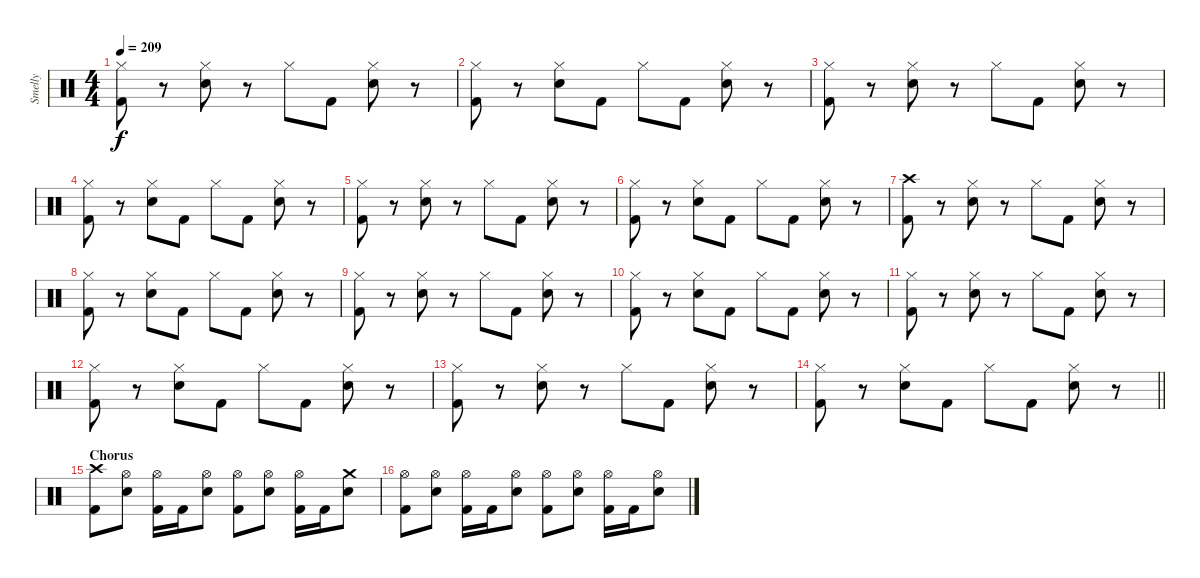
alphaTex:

\track ("Smelly" "Smelly") {instrument percussion}
\staff {score}
\articulation defaults
\ts (4 4)
\tempo 209
\clef neutral
\ks c
("Hi-Hat (closed)" "Kick (hit) 2").8{dy f} r.8 ("Hi-Hat (closed)" "Electric Snare (hit)").8 r.8 "Hi-Hat (closed)".8 "Kick (hit) 2".8 ("Hi-Hat (closed)" "Electric Snare (hit)").8 r.8 |
("Hi-Hat (closed)" "Kick (hit) 2").8 r.8 ("Hi-Hat (closed)" "Electric Snare (hit)").8 "Kick (hit) 2".8 "Hi-Hat (closed)".8 "Kick (hit) 2".8 ("Hi-Hat (closed)" "Electric Snare (hit)").8 r.8 |
("Hi-Hat (closed)" "Kick (hit) 2").8 r.8 ("Hi-Hat (closed)" "Electric Snare (hit)").8 r.8 "Hi-Hat (closed)".8 "Kick (hit) 2".8 ("Hi-Hat (closed)" "Electric Snare (hit)").8 r.8 |
("Hi-Hat (closed)" "Kick (hit) 2").8 r.8 ("Hi-Hat (closed)" "Electric Snare (hit)").8 "Kick (hit) 2".8 "Hi-Hat (closed)".8 "Kick (hit) 2".8 ("Hi-Hat (closed)" "Electric Snare (hit)").8 r.8 |
("Hi-Hat (closed)" "Kick (hit) 2").8 r.8 ("Hi-Hat (closed)" "Electric Snare (hit)").8 r.8 "Hi-Hat (closed)".8 "Kick (hit) 2".8 ("Hi-Hat (closed)" "Electric Snare (hit)").8 r.8 |
("Hi-Hat (closed)" "Kick (hit) 2").8 r.8 ("Hi-Hat (closed)" "Electric Snare (hit)").8 "Kick (hit) 2".8 "Hi-Hat (closed)".8 "Kick (hit) 2".8 ("Hi-Hat (closed)" "Electric Snare (hit)").8 r.8 |
("Crash high (hit)" "Kick (hit) 2").8 r.8 ("Hi-Hat (closed)" "Electric Snare (hit)").8 r.8 "Hi-Hat (closed)".8 "Kick (hit) 2".8 ("Hi-Hat (closed)" "Electric Snare (hit)").8 r.8 |
("Hi-Hat (closed)" "Kick (hit) 2").8 r.8 ("Hi-Hat (closed)" "Electric Snare (hit)").8 "Kick (hit) 2".8 "Hi-Hat (closed)".8 "Kick (hit) 2".8 ("Hi-Hat (closed)" "Electric Snare (hit)").8 r.8 |
("Hi-Hat (closed)" "Kick (hit) 2").8 r.8 ("Hi-Hat (closed)" "Electric Snare (hit)").8 r.8 "Hi-Hat (closed)".8 "Kick (hit) 2".8 ("Hi-Hat (closed)" "Electric Snare (hit)").8 r.8 |
("Hi-Hat (closed)" "Kick (hit) 2").8 r.8 ("Hi-Hat (closed)" "Electric Snare (hit)").8 "Kick (hit) 2".8 "Hi-Hat (closed)".8 "Kick (hit) 2".8 ("Hi-Hat (closed)" "Electric Snare (hit)").8 r.8 |
("Hi-Hat (closed)" "Kick (hit) 2").8 r.8 ("Hi-Hat (closed)" "Electric Snare (hit)").8 r.8 "Hi-Hat (closed)".8 "Kick (hit) 2".8 ("Hi-Hat (closed)" "Electric Snare (hit)").8 r.8 |
("Hi-Hat (closed)" "Kick (hit) 2").8 r.8 ("Hi-Hat (closed)" "Electric Snare (hit)").8 "Kick (hit) 2".8 "Hi-Hat (closed)".8 "Kick (hit) 2".8 ("Hi-Hat (closed)" "Electric Snare (hit)").8 r.8 |
("Hi-Hat (closed)" "Kick (hit) 2").8 r.8 ("Hi-Hat (closed)" "Electric Snare (hit)").8 r.8 "Hi-Hat (closed)".8 "Kick (hit) 2".8 ("Hi-Hat (closed)" "Electric Snare (hit)").8 r.8 |
\barLineRight lightlight
("Hi-Hat (closed)" "Kick (hit) 2").8 r.8 ("Hi-Hat (closed)" "Electric Snare (hit)").8 "Kick (hit) 2".8 "Hi-Hat (closed)".8 "Kick (hit) 2".8 ("Hi-Hat (closed)" "Electric Snare (hit)").8 r.8 |
\section ("" "Chorus")
("Crash high (hit)" "Kick (hit) 2").8 ("Hi-Hat (open)" "Electric Snare (hit)").8 ("Hi-Hat (open)" "Kick (hit) 2").16 "Kick (hit) 2".16 ("Hi-Hat (open)" "Electric Snare (hit)").8 ("Hi-Hat (open)" "Kick (hit) 2").8 ("Hi-Hat (open)" "Electric Snare (hit)").8 ("Hi-Hat (open)" "Kick (hit) 2").16 "Kick (hit) 2".16 ("Crash medium (hit)" "Electric Snare (hit)").8 |
("Hi-Hat (open)" "Kick (hit) 2").8 ("Hi-Hat (open)" "Electric Snare (hit)").8 ("Hi-Hat (open)" "Kick (hit) 2").16 "Kick (hit) 2".16 ("Hi-Hat (open)" "Electric Snare (hit)").8 ("Hi-Hat (open)" "Kick (hit) 2").8 ("Hi-Hat (open)" "Electric Snare (hit)").8 ("Hi-Hat (open)" "Kick (hit) 2").16 "Kick (hit) 2".16 ("Hi-Hat (open)" "Electric Snare (hit)").8
